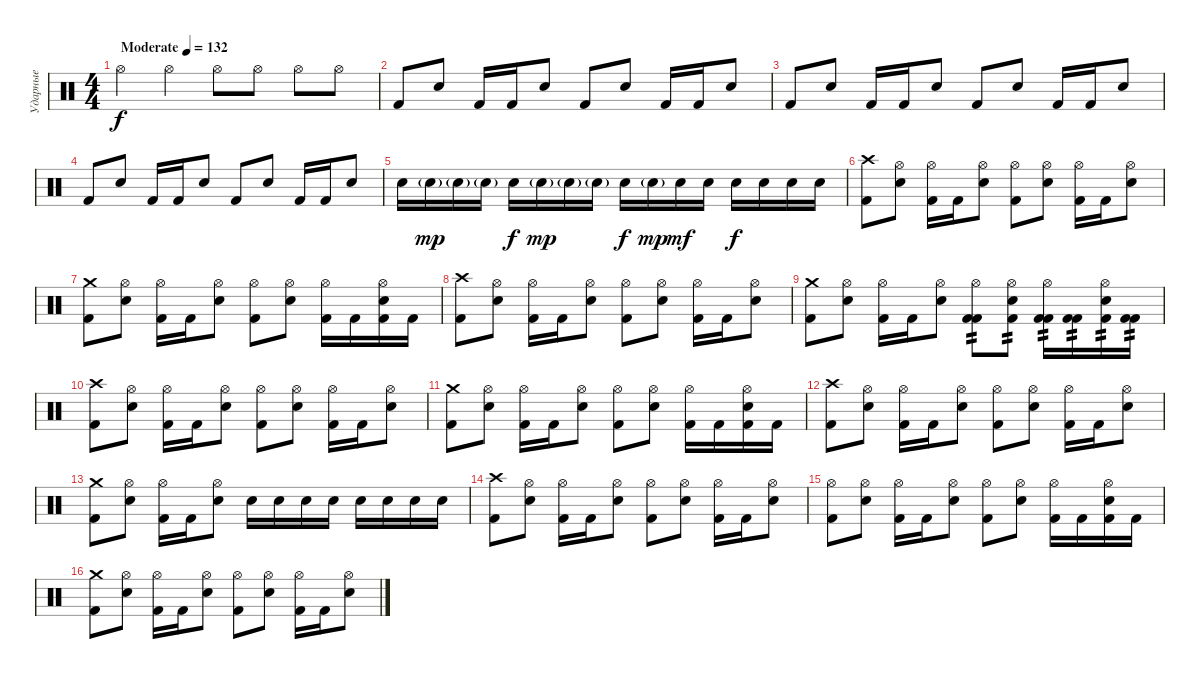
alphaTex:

\track ("Ударные" "Ударные") {instrument percussion}
\staff {score}
\articulation defaults
\ts (4 4)
\tempo (132 "Moderate")
\clef neutral
\ks c "Hi-Hat (open)".4{dy f} "Hi-Hat (open)".4 "Hi-Hat (open)".8 "Hi-Hat (open)".8 "Hi-Hat (open)".8 "Hi-Hat (open)".8
|
"Kick (hit) 2".8 "Electric Snare (hit)".8 "Kick (hit) 2".16 "Kick (hit) 2".16 "Electric Snare (hit)".8 "Kick (hit) 2".8 "Electric Snare (hit)".8 "Kick (hit) 2".16 "Kick (hit) 2".16 "Electric Snare (hit)".8 |
"Kick (hit) 2".8 "Electric Snare (hit)".8 "Kick (hit) 2".16 "Kick (hit) 2".16 "Electric Snare (hit)".8 "Kick (hit) 2".8 "Electric Snare (hit)".8 "Kick (hit) 2".16 "Kick (hit) 2".16 "Electric Snare (hit)".8 |
"Kick (hit) 2".8 "Electric Snare (hit)".8 "Kick (hit) 2".16 "Kick (hit) 2".16 "Electric Snare (hit)".8 "Kick (hit) 2".8 "Electric Snare (hit)".8 "Kick (hit) 2".16 "Kick (hit) 2".16 "Electric Snare (hit)".8 |
"Electric Snare (hit)".16 "Electric Snare (hit)"{g}.16{dy mp} "Electric Snare (hit)"{g}.16 "Electric Snare (hit)"{g}.16 "Electric Snare (hit)".16{dy f} "Electric Snare (hit)"{g}.16{dy mp} "Electric Snare (hit)"{g}.16 "Electric Snare (hit)"{g}.16 "Electric Snare (hit)".16{dy f} "Electric Snare (hit)"{g}.16{dy mp} "Electric Snare (hit)".16{dy mf} "Electric Snare (hit)".16 "Electric Snare (hit)".16{dy f} "Electric Snare (hit)".16 "Electric Snare (hit)".16 "Electric Snare (hit)".16 |
("Crash high (hit)" "Kick (hit) 2").8 ("Hi-Hat (open)" "Electric Snare (hit)").8 ("Hi-Hat (open)" "Kick (hit) 2").16 "Kick (hit) 2".16 ("Hi-Hat (open)" "Electric Snare (hit)").8 ("Hi-Hat (open)" "Kick (hit) 2").8 ("Hi-Hat (open)" "Electric Snare (hit)").8 ("Hi-Hat (open)" "Kick (hit) 2").16 "Kick (hit) 2".16 ("Hi-Hat (open)" "Electric Snare (hit)").8 |
("Crash medium (hit)" "Kick (hit) 2").8 ("Hi-Hat (open)" "Electric Snare (hit)").8 ("Hi-Hat (open)" "Kick (hit) 2").16 "Kick (hit) 2".16 ("Hi-Hat (open)" "Electric Snare (hit)").8 ("Hi-Hat (open)" "Kick (hit) 2").8 ("Hi-Hat (open)" "Electric Snare (hit)").8 ("Hi-Hat (open)" "Kick (hit) 2").16 "Kick (hit) 2".16 ("Hi-Hat (open)" "Kick (hit) 2" "Electric Snare (hit)").16 "Kick (hit) 2".16 |
("Crash high (hit)" "Kick (hit) 2").8 ("Hi-Hat (open)" "Electric Snare (hit)").8 ("Hi-Hat (open)" "Kick (hit) 2").16 "Kick (hit) 2".16 ("Hi-Hat (open)" "Electric Snare (hit)").8 ("Hi-Hat (open)" "Kick (hit) 2").8 ("Hi-Hat (open)" "Electric Snare (hit)").8 ("Hi-Hat (open)" "Kick (hit) 2").16 "Kick (hit) 2".16 ("Hi-Hat (open)" "Electric Snare (hit)").8 |
("Crash medium (hit)" "Kick (hit) 2").8 ("Hi-Hat (open)" "Electric Snare (hit)").8 ("Hi-Hat (open)" "Kick (hit) 2").16 "Kick (hit) 2".16 ("Hi-Hat (open)" "Electric Snare (hit)").8 ("Hi-Hat (open)" "Kick (hit) 2" "Kick (hit) 2").8{tp 2} ("Hi-Hat (open)" "Electric Snare (hit)" "Kick (hit) 2").8{tp 2} ("Hi-Hat (open)" "Kick (hit) 2" "Kick (hit) 2").16{tp 2} ("Kick (hit) 2" "Kick (hit) 2").16{tp 2} ("Hi-Hat (open)" "Kick (hit) 2" "Electric Snare (hit)").16{tp 2} ("Kick (hit) 2" "Kick (hit) 2").16{tp 2} |
("Crash high (hit)" "Kick (hit) 2").8 ("Hi-Hat (open)" "Electric Snare (hit)").8 ("Hi-Hat (open)" "Kick (hit) 2").16 "Kick (hit) 2".16 ("Hi-Hat (open)" "Electric Snare (hit)").8 ("Hi-Hat (open)" "Kick (hit) 2").8 ("Hi-Hat (open)" "Electric Snare (hit)").8 ("Hi-Hat (open)" "Kick (hit) 2").16 "Kick (hit) 2".16 ("Hi-Hat (open)" "Electric Snare (hit)").8 |
("Crash medium (hit)" "Kick (hit) 2").8 ("Hi-Hat (open)" "Electric Snare (hit)").8 ("Hi-Hat (open)" "Kick (hit) 2").16 "Kick (hit) 2".16 ("Hi-Hat (open)" "Electric Snare (hit)").8 ("Hi-Hat (open)" "Kick (hit) 2").8 ("Hi-Hat (open)" "Electric Snare (hit)").8 ("Hi-Hat (open)" "Kick (hit) 2").16 "Kick (hit) 2".16 ("Hi-Hat (open)" "Kick (hit) 2" "Electric Snare (hit)").16 "Kick (hit) 2".16 |
("Crash high (hit)" "Kick (hit) 2").8 ("Hi-Hat (open)" "Electric Snare (hit)").8 ("Hi-Hat (open)" "Kick (hit) 2").16 "Kick (hit) 2".16 ("Hi-Hat (open)" "Electric Snare (hit)").8 ("Hi-Hat (open)" "Kick (hit) 2").8 ("Hi-Hat (open)" "Electric Snare (hit)").8 ("Hi-Hat (open)" "Kick (hit) 2").16 "Kick (hit) 2".16 ("Hi-Hat (open)" "Electric Snare (hit)").8 |
("Crash medium (hit)" "Kick (hit) 2").8 ("Hi-Hat (open)" "Electric Snare (hit)").8 ("Hi-Hat (open)" "Kick (hit) 2").16 "Kick (hit) 2".16 ("Hi-Hat (open)" "Electric Snare (hit)").8 "Electric Snare (hit)".16 "Electric Snare (hit)".16 "Electric Snare (hit)".16 "Electric Snare (hit)".16 "Electric Snare (hit)".16 "Electric Snare (hit)".16 "Electric Snare (hit)".16 "Electric Snare (hit)".16 |
("Crash high (hit)" "Kick (hit) 2").8 ("Hi-Hat (open)" "Electric Snare (hit)").8 ("Hi-Hat (open)" "Kick (hit) 2").16 "Kick (hit) 2".16 ("Hi-Hat (open)" "Electric Snare (hit)").8 ("Hi-Hat (open)" "Kick (hit) 2").8 ("Hi-Hat (open)" "Electric Snare (hit)").8 ("Hi-Hat (open)" "Kick (hit) 2").16 "Kick (hit) 2".16 ("Hi-Hat (open)" "Electric Snare (hit)").8 |
("Hi-Hat (open)" "Kick (hit) 2").8 ("Hi-Hat (open)" "Electric Snare (hit)").8 ("Hi-Hat (open)" "Kick (hit) 2").16 "Kick (hit) 2".16 ("Hi-Hat (open)" "Electric Snare (hit)").8 ("Hi-Hat (open)" "Kick (hit) 2").8 ("Hi-Hat (open)" "Electric Snare (hit)").8 ("Hi-Hat (open)" "Kick (hit) 2").16 "Kick (hit) 2".16 ("Hi-Hat (open)" "Kick (hit) 2" "Electric Snare (hit)").16 "Kick (hit) 2".16 |
("Crash medium (hit)" "Kick (hit) 2").8 ("Hi-Hat (open)" "Electric Snare (hit)").8 ("Hi-Hat (open)" "Kick (hit) 2").16 "Kick (hit) 2".16 ("Hi-Hat (open)" "Electric Snare (hit)").8 ("Hi-Hat (open)" "Kick (hit) 2").8 ("Hi-Hat (open)" "Electric Snare (hit)").8 ("Hi-Hat (open)" "Kick (hit) 2").16 "Kick (hit) 2".16 ("Hi-Hat (open)" "Electric Snare (hit)").8
